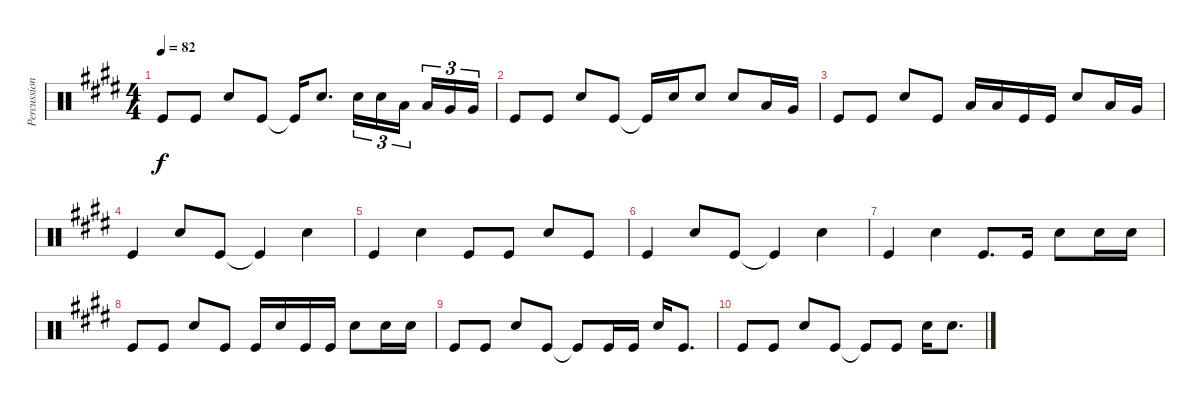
\track ("Percussion" "Percussion") {instrument percussion}
\staff {score}
\articulation defaults
\ts (4 4)
\tempo 82
\clef neutral
\ks e "Kick (hit)".8{dy f} "Kick (hit)".8 "Snare (hit) 2".8 "Kick (hit)".8 "Kick (hit)"{t}.16 "Snare (hit) 2".8{d} "Snare (hit) 2".16{tu (3 2)} "Snare (hit) 2".16{tu (3 2)} "Low Tom (hit)".16{tu (3 2) beam splitsecondary} "Low Tom (hit)".16{tu (3 2)} "Very Low Tom (hit)".16{tu (3 2)} "Very Low Tom (hit)".16{tu (3 2)}
|
"Kick (hit)".8 "Kick (hit)".8 "Snare (hit) 2".8 "Kick (hit)".8 "Kick (hit)"{t}.16 "Snare (hit) 2".16 "Snare (hit) 2".8 "Snare (hit) 2".8 "Low Tom (hit)".16 "Very Low Tom (hit)".16 |
"Kick (hit)".8 "Kick (hit)".8 "Snare (hit) 2".8 "Kick (hit)".8 "Low Floor Tom (hit)".16 "Low Floor Tom (hit)".16 "Kick (hit)".16 "Kick (hit)".16 "Snare (hit) 2".8 "Low Tom (hit)".16 "Very Low Tom (hit)".16 |
"Kick (hit)".4 "Snare (hit) 2".8 "Kick (hit)".8 "Kick (hit)"{t}.4 "Snare (hit) 2".4 |
"Kick (hit)".4 "Snare (hit) 2".4 "Kick (hit)".8 "Kick (hit)".8 "Snare (hit) 2".8 "Kick (hit)".8 |
"Kick (hit)".4 "Snare (hit) 2".8 "Kick (hit)".8 "Kick (hit)"{t}.4 "Snare (hit) 2".4 |
"Kick (hit)".4 "Snare (hit) 2".4 "Kick (hit)".8{d} "Kick (hit)".16 "Snare (hit) 2".8 "Snare (hit) 2".16 "Snare (hit) 2".16 |
"Kick (hit)".8 "Kick (hit)".8 "Snare (hit) 2".8 "Kick (hit)".8 "Kick (hit)".16 "Snare (hit) 2".16 "Kick (hit)".16 "Kick (hit)".16 "Snare (hit) 2".8 "Snare (hit) 2".16 "Snare (hit) 2".16 |
"Kick (hit)".8 "Kick (hit)".8 "Snare (hit) 2".8 "Kick (hit)".8 "Kick (hit)"{t}.8 "Kick (hit)".16 "Kick (hit)".16 "Snare (hit) 2".16 "Kick (hit)".8{d} |
"Kick (hit)".8 "Kick (hit)".8 "Snare (hit) 2".8 "Kick (hit)".8 "Kick (hit)"{t}.8 "Kick (hit)".8 "Snare (hit) 2".16 "Snare (hit) 2".8{d}
